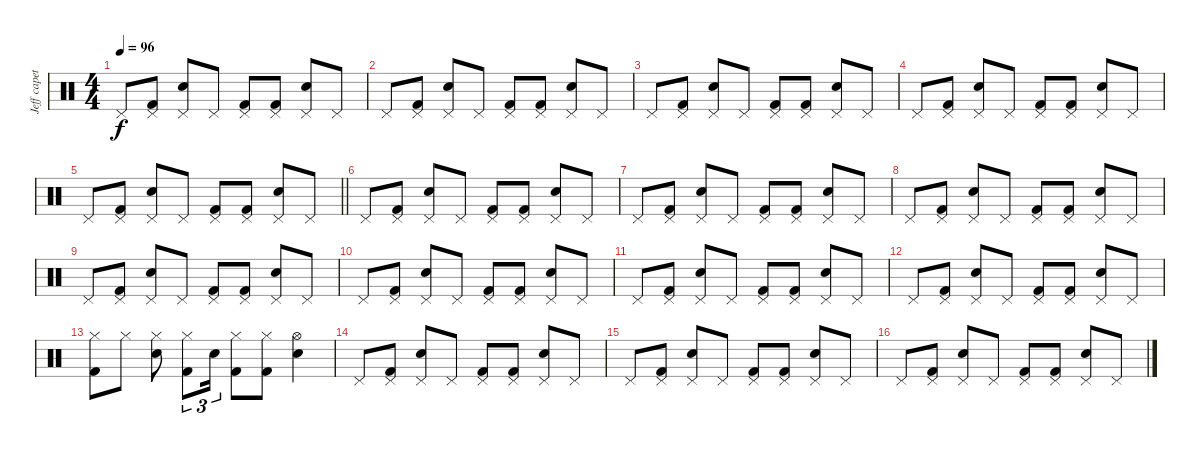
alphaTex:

\track ("Jeff capetally" "Jeff capet") {instrument percussion}
\staff {score}
\articulation defaults
\ts (4 4)
\tempo 96
\clef neutral
\ks c "Pedal Hi-Hat (hit)".8{dy f}
("Pedal Hi-Hat (hit)" "Kick (hit) 2").8 ("Pedal Hi-Hat (hit)" "Snare (hit) 2").8 "Pedal Hi-Hat (hit)".8 ("Pedal Hi-Hat (hit)" "Kick (hit) 2").8 ("Pedal Hi-Hat (hit)" "Kick (hit) 2").8 ("Pedal Hi-Hat (hit)" "Snare (hit) 2").8 "Pedal Hi-Hat (hit)".8 |
"Pedal Hi-Hat (hit)".8 ("Pedal Hi-Hat (hit)" "Kick (hit) 2").8 ("Pedal Hi-Hat (hit)" "Snare (hit) 2").8 "Pedal Hi-Hat (hit)".8 ("Pedal Hi-Hat (hit)" "Kick (hit) 2").8 ("Pedal Hi-Hat (hit)" "Kick (hit) 2").8 ("Pedal Hi-Hat (hit)" "Snare (hit) 2").8 "Pedal Hi-Hat (hit)".8 |
"Pedal Hi-Hat (hit)".8 ("Pedal Hi-Hat (hit)" "Kick (hit) 2").8 ("Pedal Hi-Hat (hit)" "Snare (hit) 2").8 "Pedal Hi-Hat (hit)".8 ("Pedal Hi-Hat (hit)" "Kick (hit) 2").8 ("Pedal Hi-Hat (hit)" "Kick (hit) 2").8 ("Pedal Hi-Hat (hit)" "Snare (hit) 2").8 "Pedal Hi-Hat (hit)".8 |
"Pedal Hi-Hat (hit)".8 ("Pedal Hi-Hat (hit)" "Kick (hit) 2").8 ("Pedal Hi-Hat (hit)" "Snare (hit) 2").8 "Pedal Hi-Hat (hit)".8 ("Pedal Hi-Hat (hit)" "Kick (hit) 2").8 ("Pedal Hi-Hat (hit)" "Kick (hit) 2").8 ("Pedal Hi-Hat (hit)" "Snare (hit) 2").8 "Pedal Hi-Hat (hit)".8 |
\barLineRight lightlight "Pedal Hi-Hat (hit)".8
("Pedal Hi-Hat (hit)" "Kick (hit) 2").8 ("Pedal Hi-Hat (hit)" "Snare (hit) 2").8 "Pedal Hi-Hat (hit)".8 ("Pedal Hi-Hat (hit)" "Kick (hit) 2").8 ("Pedal Hi-Hat (hit)" "Kick (hit) 2").8 ("Pedal Hi-Hat (hit)" "Snare (hit) 2").8 "Pedal Hi-Hat (hit)".8 |
"Pedal Hi-Hat (hit)".8 ("Pedal Hi-Hat (hit)" "Kick (hit) 2").8 ("Pedal Hi-Hat (hit)" "Snare (hit) 2").8 "Pedal Hi-Hat (hit)".8 ("Pedal Hi-Hat (hit)" "Kick (hit) 2").8 ("Pedal Hi-Hat (hit)" "Kick (hit) 2").8 ("Pedal Hi-Hat (hit)" "Snare (hit) 2").8 "Pedal Hi-Hat (hit)".8 |
"Pedal Hi-Hat (hit)".8 ("Pedal Hi-Hat (hit)" "Kick (hit) 2").8 ("Pedal Hi-Hat (hit)" "Snare (hit) 2").8 "Pedal Hi-Hat (hit)".8 ("Pedal Hi-Hat (hit)" "Kick (hit) 2").8 ("Pedal Hi-Hat (hit)" "Kick (hit) 2").8 ("Pedal Hi-Hat (hit)" "Snare (hit) 2").8 "Pedal Hi-Hat (hit)".8 |
"Pedal Hi-Hat (hit)".8 ("Pedal Hi-Hat (hit)" "Kick (hit) 2").8 ("Pedal Hi-Hat (hit)" "Snare (hit) 2").8 "Pedal Hi-Hat (hit)".8 ("Pedal Hi-Hat (hit)" "Kick (hit) 2").8 ("Pedal Hi-Hat (hit)" "Kick (hit) 2").8 ("Pedal Hi-Hat (hit)" "Snare (hit) 2").8 "Pedal Hi-Hat (hit)".8 |
"Pedal Hi-Hat (hit)".8 ("Pedal Hi-Hat (hit)" "Kick (hit) 2").8 ("Pedal Hi-Hat (hit)" "Snare (hit) 2").8 "Pedal Hi-Hat (hit)".8 ("Pedal Hi-Hat (hit)" "Kick (hit) 2").8 ("Pedal Hi-Hat (hit)" "Kick (hit) 2").8 ("Pedal Hi-Hat (hit)" "Snare (hit) 2").8 "Pedal Hi-Hat (hit)".8 |
"Pedal Hi-Hat (hit)".8 ("Pedal Hi-Hat (hit)" "Kick (hit) 2").8 ("Pedal Hi-Hat (hit)" "Snare (hit) 2").8 "Pedal Hi-Hat (hit)".8 ("Pedal Hi-Hat (hit)" "Kick (hit) 2").8 ("Pedal Hi-Hat (hit)" "Kick (hit) 2").8 ("Pedal Hi-Hat (hit)" "Snare (hit) 2").8 "Pedal Hi-Hat (hit)".8 |
"Pedal Hi-Hat (hit)".8 ("Pedal Hi-Hat (hit)" "Kick (hit) 2").8 ("Pedal Hi-Hat (hit)" "Snare (hit) 2").8 "Pedal Hi-Hat (hit)".8 ("Pedal Hi-Hat (hit)" "Kick (hit) 2").8 ("Pedal Hi-Hat (hit)" "Kick (hit) 2").8 ("Pedal Hi-Hat (hit)" "Snare (hit) 2").8 "Pedal Hi-Hat (hit)".8 |
"Pedal Hi-Hat (hit)".8 ("Pedal Hi-Hat (hit)" "Kick (hit) 2").8 ("Pedal Hi-Hat (hit)" "Snare (hit) 2").8 "Pedal Hi-Hat (hit)".8 ("Pedal Hi-Hat (hit)" "Kick (hit) 2").8 ("Pedal Hi-Hat (hit)" "Kick (hit) 2").8 ("Pedal Hi-Hat (hit)" "Snare (hit) 2").8 "Pedal Hi-Hat (hit)".8 |
("Hi-Hat (closed)" "Kick (hit) 2").8 "Hi-Hat (closed)".8 ("Hi-Hat (closed)" "Snare (hit) 2").8 ("Hi-Hat (closed)" "Kick (hit) 2").8{tu (3 2)} "Snare (hit) 2".16{tu (3 2)} ("Hi-Hat (closed)" "Kick (hit) 2").8 ("Hi-Hat (closed)" "Kick (hit) 2").8 ("Hi-Hat (open)" "Snare (hit) 2").4 |
"Pedal Hi-Hat (hit)".8 ("Pedal Hi-Hat (hit)" "Kick (hit) 2").8 ("Pedal Hi-Hat (hit)" "Snare (hit) 2").8 "Pedal Hi-Hat (hit)".8 ("Pedal Hi-Hat (hit)" "Kick (hit) 2").8 ("Pedal Hi-Hat (hit)" "Kick (hit) 2").8 ("Pedal Hi-Hat (hit)" "Snare (hit) 2").8 "Pedal Hi-Hat (hit)".8 |
"Pedal Hi-Hat (hit)".8 ("Pedal Hi-Hat (hit)" "Kick (hit) 2").8 ("Pedal Hi-Hat (hit)" "Snare (hit) 2").8 "Pedal Hi-Hat (hit)".8 ("Pedal Hi-Hat (hit)" "Kick (hit) 2").8 ("Pedal Hi-Hat (hit)" "Kick (hit) 2").8 ("Pedal Hi-Hat (hit)" "Snare (hit) 2").8 "Pedal Hi-Hat (hit)".8 |
"Pedal Hi-Hat (hit)".8 ("Pedal Hi-Hat (hit)" "Kick (hit) 2").8 ("Pedal Hi-Hat (hit)" "Snare (hit) 2").8 "Pedal Hi-Hat (hit)".8 ("Pedal Hi-Hat (hit)" "Kick (hit) 2").8 ("Pedal Hi-Hat (hit)" "Kick (hit) 2").8 ("Pedal Hi-Hat (hit)" "Snare (hit) 2").8 "Pedal Hi-Hat (hit)".8
